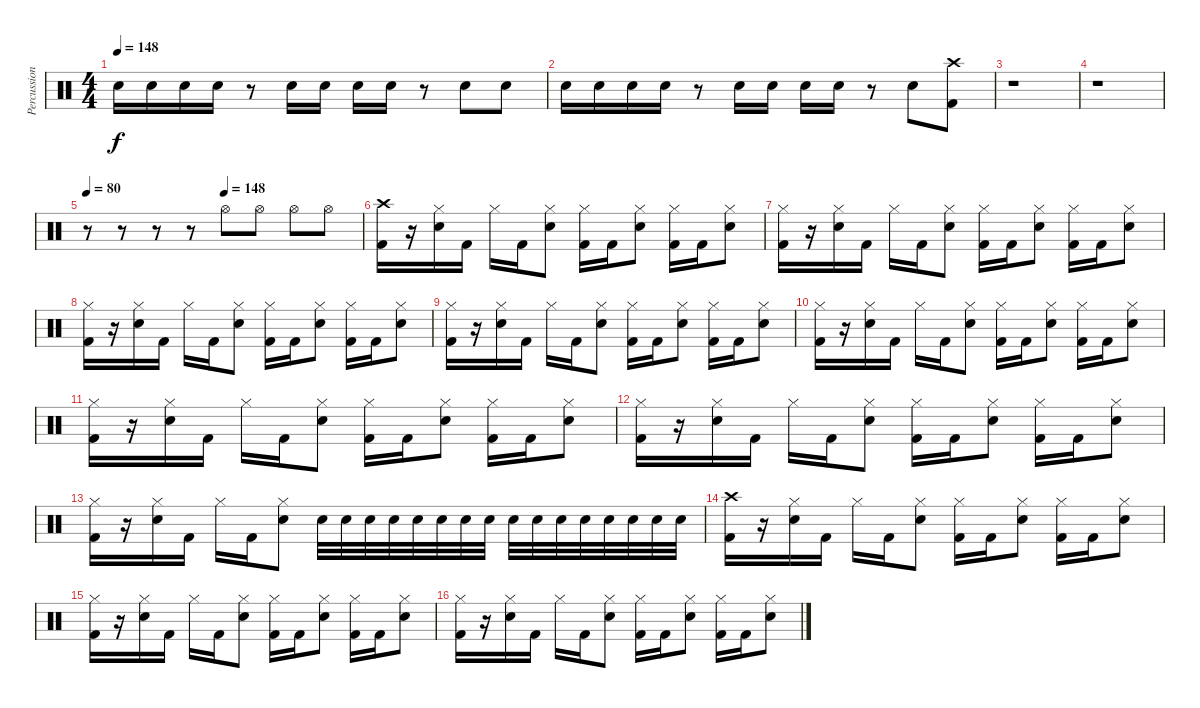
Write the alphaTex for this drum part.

\track ("Percussion" "Percussion") {instrument percussion}
\staff {score}
\articulation defaults
\ts (4 4)
\tempo 148
\clef neutral
\ks c "Snare (hit) 2".16{dy f} "Snare (hit) 2".16 "Snare (hit) 2".16 "Snare (hit) 2".16
r.8 "Snare (hit) 2".16 "Snare (hit) 2".16 "Snare (hit) 2".16 "Snare (hit) 2".16 r.8 "Snare (hit) 2".8 "Snare (hit) 2".8 |
"Snare (hit) 2".16 "Snare (hit) 2".16 "Snare (hit) 2".16 "Snare (hit) 2".16 r.8 "Snare (hit) 2".16 "Snare (hit) 2".16 "Snare (hit) 2".16 "Snare (hit) 2".16 r.8 "Snare (hit) 2".8 ("Crash high (hit)" "Kick (hit) 2").8 |
r.1 |
r.1 |
\tempo 80
\tempo (148 0.5)
r.8 r.8 r.8 r.8 "Hi-Hat (open)".8 "Hi-Hat (open)".8 "Hi-Hat (open)".8 "Hi-Hat (open)".8 |
("Crash high (hit)" "Kick (hit) 2").16 r.16 ("Hi-Hat (closed)" "Snare (hit) 2").16 "Kick (hit) 2".16 "Hi-Hat (closed)".16 "Kick (hit) 2".16 ("Hi-Hat (closed)" "Snare (hit) 2").8 ("Hi-Hat (closed)" "Kick (hit) 2").16 "Kick (hit) 2".16 ("Hi-Hat (closed)" "Snare (hit) 2").8 ("Hi-Hat (closed)" "Kick (hit) 2").16 "Kick (hit) 2".16 ("Hi-Hat (closed)" "Snare (hit) 2").8 |
("Hi-Hat (closed)" "Kick (hit) 2").16 r.16 ("Hi-Hat (closed)" "Snare (hit) 2").16 "Kick (hit) 2".16 "Hi-Hat (closed)".16 "Kick (hit) 2".16 ("Hi-Hat (closed)" "Snare (hit) 2").8 ("Hi-Hat (closed)" "Kick (hit) 2").16 "Kick (hit) 2".16 ("Hi-Hat (closed)" "Snare (hit) 2").8 ("Hi-Hat (closed)" "Kick (hit) 2").16 "Kick (hit) 2".16 ("Hi-Hat (closed)" "Snare (hit) 2").8 |
("Hi-Hat (closed)" "Kick (hit) 2").16 r.16 ("Hi-Hat (closed)" "Snare (hit) 2").16 "Kick (hit) 2".16 "Hi-Hat (closed)".16 "Kick (hit) 2".16 ("Hi-Hat (closed)" "Snare (hit) 2").8 ("Hi-Hat (closed)" "Kick (hit) 2").16 "Kick (hit) 2".16 ("Hi-Hat (closed)" "Snare (hit) 2").8 ("Hi-Hat (closed)" "Kick (hit) 2").16 "Kick (hit) 2".16 ("Hi-Hat (closed)" "Snare (hit) 2").8 |
("Hi-Hat (closed)" "Kick (hit) 2").16 r.16 ("Hi-Hat (closed)" "Snare (hit) 2").16 "Kick (hit) 2".16 "Hi-Hat (closed)".16 "Kick (hit) 2".16 ("Hi-Hat (closed)" "Snare (hit) 2").8 ("Hi-Hat (closed)" "Kick (hit) 2").16 "Kick (hit) 2".16 ("Hi-Hat (closed)" "Snare (hit) 2").8 ("Hi-Hat (closed)" "Kick (hit) 2").16 "Kick (hit) 2".16 ("Hi-Hat (closed)" "Snare (hit) 2").8 |
("Hi-Hat (closed)" "Kick (hit) 2").16 r.16 ("Hi-Hat (closed)" "Snare (hit) 2").16 "Kick (hit) 2".16 "Hi-Hat (closed)".16 "Kick (hit) 2".16 ("Hi-Hat (closed)" "Snare (hit) 2").8 ("Hi-Hat (closed)" "Kick (hit) 2").16 "Kick (hit) 2".16 ("Hi-Hat (closed)" "Snare (hit) 2").8 ("Hi-Hat (closed)" "Kick (hit) 2").16 "Kick (hit) 2".16 ("Hi-Hat (closed)" "Snare (hit) 2").8 |
("Hi-Hat (closed)" "Kick (hit) 2").16 r.16 ("Hi-Hat (closed)" "Snare (hit) 2").16 "Kick (hit) 2".16 "Hi-Hat (closed)".16 "Kick (hit) 2".16 ("Hi-Hat (closed)" "Snare (hit) 2").8 ("Hi-Hat (closed)" "Kick (hit) 2").16 "Kick (hit) 2".16 ("Hi-Hat (closed)" "Snare (hit) 2").8 ("Hi-Hat (closed)" "Kick (hit) 2").16 "Kick (hit) 2".16 ("Hi-Hat (closed)" "Snare (hit) 2").8 |
("Hi-Hat (closed)" "Kick (hit) 2").16 r.16 ("Hi-Hat (closed)" "Snare (hit) 2").16 "Kick (hit) 2".16 "Hi-Hat (closed)".16 "Kick (hit) 2".16 ("Hi-Hat (closed)" "Snare (hit) 2").8 ("Hi-Hat (closed)" "Kick (hit) 2").16 "Kick (hit) 2".16 ("Hi-Hat (closed)" "Snare (hit) 2").8 ("Hi-Hat (closed)" "Kick (hit) 2").16 "Kick (hit) 2".16 ("Hi-Hat (closed)" "Snare (hit) 2").8 |
("Hi-Hat (closed)" "Kick (hit) 2").16 r.16 ("Hi-Hat (closed)" "Snare (hit) 2").16 "Kick (hit) 2".16 "Hi-Hat (closed)".16 "Kick (hit) 2".16 ("Hi-Hat (closed)" "Snare (hit) 2").8 "Snare (hit) 2".32 "Snare (hit) 2".32 "Snare (hit) 2".32 "Snare (hit) 2".32 "Snare (hit) 2".32 "Snare (hit) 2".32 "Snare (hit) 2".32 "Snare (hit) 2".32 "Snare (hit) 2".32 "Snare (hit) 2".32 "Snare (hit) 2".32 "Snare (hit) 2".32 "Snare (hit) 2".32 "Snare (hit) 2".32 "Snare (hit) 2".32 "Snare (hit) 2".32 |
("Crash high (hit)" "Kick (hit) 2").16 r.16 ("Hi-Hat (closed)" "Snare (hit) 2").16 "Kick (hit) 2".16 "Hi-Hat (closed)".16 "Kick (hit) 2".16 ("Hi-Hat (closed)" "Snare (hit) 2").8 ("Hi-Hat (closed)" "Kick (hit) 2").16 "Kick (hit) 2".16 ("Hi-Hat (closed)" "Snare (hit) 2").8 ("Hi-Hat (closed)" "Kick (hit) 2").16 "Kick (hit) 2".16 ("Hi-Hat (closed)" "Snare (hit) 2").8 |
("Hi-Hat (closed)" "Kick (hit) 2").16 r.16 ("Hi-Hat (closed)" "Snare (hit) 2").16 "Kick (hit) 2".16 "Hi-Hat (closed)".16 "Kick (hit) 2".16 ("Hi-Hat (closed)" "Snare (hit) 2").8 ("Hi-Hat (closed)" "Kick (hit) 2").16 "Kick (hit) 2".16 ("Hi-Hat (closed)" "Snare (hit) 2").8 ("Hi-Hat (closed)" "Kick (hit) 2").16 "Kick (hit) 2".16 ("Hi-Hat (closed)" "Snare (hit) 2").8 |
("Hi-Hat (closed)" "Kick (hit) 2").16 r.16 ("Hi-Hat (closed)" "Snare (hit) 2").16 "Kick (hit) 2".16 "Hi-Hat (closed)".16 "Kick (hit) 2".16 ("Hi-Hat (closed)" "Snare (hit) 2").8 ("Hi-Hat (closed)" "Kick (hit) 2").16 "Kick (hit) 2".16 ("Hi-Hat (closed)" "Snare (hit) 2").8 ("Hi-Hat (closed)" "Kick (hit) 2").16 "Kick (hit) 2".16 ("Hi-Hat (closed)" "Snare (hit) 2").8
